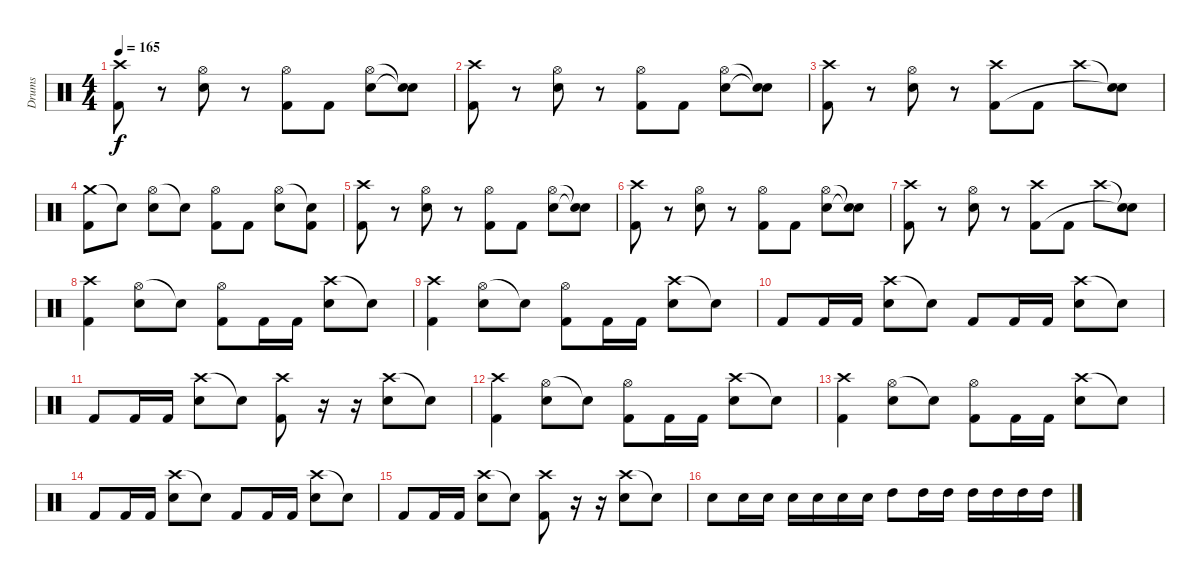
\track ("Drums" "Drums") {instrument percussion}
\staff {score}
\articulation defaults
\ts (4 4)
\tempo 165
\clef neutral
\ks c
("Crash high (hit)" "Kick (hit) 2").8{dy f} r.8 ("Hi-Hat (open)" "Snare (hit) 2").8 r.8 ("Hi-Hat (open)" "Kick (hit) 2").8 "Kick (hit) 2".8 ("Hi-Hat (open)" "Snare (hit) 2").8 ("Snare (hit)"{t} "Snare (hit)"{t}).8 |
("Crash high (hit)" "Kick (hit) 2").8 r.8 ("Hi-Hat (open)" "Snare (hit) 2").8 r.8 ("Hi-Hat (open)" "Kick (hit) 2").8 "Kick (hit) 2".8 ("Hi-Hat (open)" "Snare (hit) 2").8 ("Snare (hit)"{t} "Snare (hit)"{t}).8 |
("Crash high (hit)" "Kick (hit) 2").8 r.8 ("Hi-Hat (open)" "Snare (hit) 2").8 r.8 ("Crash high (hit)" "Kick (hit) 2").8 "Kick (hit) 2".8 "Crash high (hit)".8 ("Snare (hit)"{t} "Snare (hit)"{t}).8 |
("Crash medium (hit)" "Kick (hit) 2").8 "Snare (hit)"{t}.8 ("Hi-Hat (open)" "Electric Snare (hit)").8 "Snare (hit)"{t}.8 ("Hi-Hat (open)" "Kick (hit) 2").8 "Kick (hit) 2".8 ("Hi-Hat (open)" "Electric Snare (hit)").8 ("Snare (hit)"{t} "Kick (hit) 2").8 |
("Crash high (hit)" "Kick (hit) 2").8 r.8 ("Hi-Hat (open)" "Snare (hit) 2").8 r.8 ("Hi-Hat (open)" "Kick (hit) 2").8 "Kick (hit) 2".8 ("Hi-Hat (open)" "Snare (hit) 2").8 ("Snare (hit)"{t} "Snare (hit)"{t}).8 |
("Crash high (hit)" "Kick (hit) 2").8 r.8 ("Hi-Hat (open)" "Snare (hit) 2").8 r.8 ("Hi-Hat (open)" "Kick (hit) 2").8 "Kick (hit) 2".8 ("Hi-Hat (open)" "Snare (hit) 2").8 ("Snare (hit)"{t} "Snare (hit)"{t}).8 |
("Crash high (hit)" "Kick (hit) 2").8 r.8 ("Hi-Hat (open)" "Snare (hit) 2").8 r.8 ("Crash high (hit)" "Kick (hit) 2").8 "Kick (hit) 2".8 "Crash high (hit)".8 ("Snare (hit)"{t} "Snare (hit)"{t}).8 |
("Crash high (hit)" "Kick (hit) 2").4 ("Hi-Hat (open)" "Snare (hit) 2").8 "Snare (hit)"{t}.8 ("Hi-Hat (open)" "Kick (hit) 2").8 "Kick (hit) 2".16 "Kick (hit) 2".16 ("Crash high (hit)" "Snare (hit) 2").8 "Snare (hit)"{t}.8 |
("Crash high (hit)" "Kick (hit) 2").4 ("Hi-Hat (open)" "Snare (hit) 2").8 "Snare (hit)"{t}.8 ("Hi-Hat (open)" "Kick (hit) 2").8 "Kick (hit) 2".16 "Kick (hit) 2".16 ("Crash high (hit)" "Snare (hit) 2").8 "Snare (hit)"{t}.8 |
"Kick (hit) 2".8 "Kick (hit) 2".16 "Kick (hit) 2".16 ("Crash high (hit)" "Snare (hit) 2").8 "Snare (hit)"{t}.8 "Kick (hit) 2".8 "Kick (hit) 2".16 "Kick (hit) 2".16 ("Crash high (hit)" "Snare (hit) 2").8 "Snare (hit)"{t}.8 |
"Kick (hit) 2".8 "Kick (hit) 2".16 "Kick (hit) 2".16 ("Crash high (hit)" "Snare (hit) 2").8 "Snare (hit)"{t}.8 ("Crash high (hit)" "Kick (hit) 2").8 r.16 r.16 ("Crash high (hit)" "Snare (hit) 2").8 "Snare (hit)"{t}.8 |
("Crash high (hit)" "Kick (hit) 2").4 ("Hi-Hat (open)" "Snare (hit) 2").8 "Snare (hit)"{t}.8 ("Hi-Hat (open)" "Kick (hit) 2").8 "Kick (hit) 2".16 "Kick (hit) 2".16 ("Crash high (hit)" "Snare (hit) 2").8 "Snare (hit)"{t}.8 |
("Crash high (hit)" "Kick (hit) 2").4 ("Hi-Hat (open)" "Snare (hit) 2").8 "Snare (hit)"{t}.8 ("Hi-Hat (open)" "Kick (hit) 2").8 "Kick (hit) 2".16 "Kick (hit) 2".16 ("Crash high (hit)" "Snare (hit) 2").8 "Snare (hit)"{t}.8 |
"Kick (hit) 2".8 "Kick (hit) 2".16 "Kick (hit) 2".16 ("Crash high (hit)" "Snare (hit) 2").8 "Snare (hit)"{t}.8 "Kick (hit) 2".8 "Kick (hit) 2".16 "Kick (hit) 2".16 ("Crash high (hit)" "Snare (hit) 2").8 "Snare (hit)"{t}.8 |
"Kick (hit) 2".8 "Kick (hit) 2".16 "Kick (hit) 2".16 ("Crash high (hit)" "Snare (hit) 2").8 "Snare (hit)"{t}.8 ("Crash high (hit)" "Kick (hit) 2").8 r.16 r.16 ("Crash high (hit)" "Snare (hit) 2").8 "Snare (hit)"{t}.8 |
"Electric Snare (hit)".8 "Electric Snare (hit)".16 "Electric Snare (hit)".16 "Electric Snare (hit)".16 "Electric Snare (hit)".16 "Electric Snare (hit)".16 "Electric Snare (hit)".16 "High Tom (hit)".8 "High Tom (hit)".16 "High Tom (hit)".16 "High Tom (hit)".16 "High Tom (hit)".16 "High Tom (hit)".16 "High Tom (hit)".16
